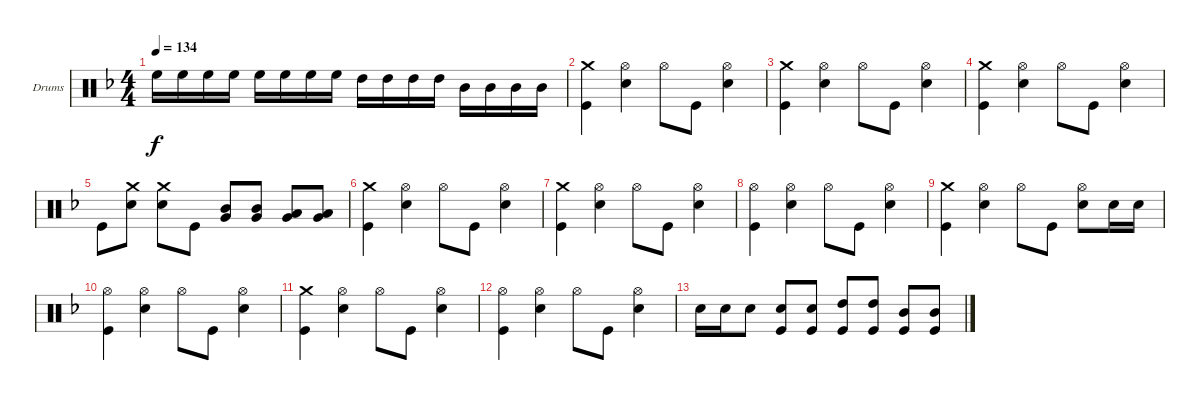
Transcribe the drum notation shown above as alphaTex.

\defaultSystemsLayout 4
\bracketExtendMode groupsimilarinstruments
\firstSystemTrackNameOrientation horizontal
\otherSystemsTrackNameOrientation horizontal
\track ("Carmine" "Drums") {instrument percussion}
\staff {score}
\articulation defaults
\ts (4 4)
\tempo 134
\clef neutral
\ks f "High Floor Tom (hit)".16{dy f} "High Floor Tom (hit)".16 "High Floor Tom (hit)".16 "High Floor Tom (hit)".16 "High Floor Tom (hit)".16 "High Floor Tom (hit)".16 "High Floor Tom (hit)".16 "High Floor Tom (hit)".16 "High Tom (hit)".16 "High Tom (hit)".16 "High Tom (hit)".16 "High Tom (hit)".16 "Mid Tom (hit)".16 "Mid Tom (hit)".16 "Mid Tom (hit)".16 "Mid Tom (hit)".16
|
("Crash medium (hit)" "Kick (hit)").4 ("Hi-Hat (open)" "Snare (hit) 2").4 "Hi-Hat (open)".8 "Kick (hit)".8 ("Hi-Hat (open)" "Snare (hit) 2").4 |
("Crash medium (hit)" "Kick (hit)").4 ("Hi-Hat (open)" "Snare (hit) 2").4 "Hi-Hat (open)".8 "Kick (hit)".8 ("Hi-Hat (open)" "Snare (hit) 2").4 |
("Crash medium (hit)" "Kick (hit)").4 ("Hi-Hat (open)" "Snare (hit) 2").4 "Hi-Hat (open)".8 "Kick (hit)".8 ("Hi-Hat (open)" "Snare (hit) 2").4 |
"Kick (hit)".8 ("Crash medium (hit)" "Snare (hit) 2").8 ("Crash medium (hit)" "Snare (hit) 2").8 "Kick (hit)".8 ("Mid Tom (hit)" "Very Low Tom (hit)").8 ("Mid Tom (hit)" "Very Low Tom (hit)").8 ("Low Tom (hit)" "Very Low Tom (hit)").8 ("Low Tom (hit)" "Very Low Tom (hit)").8 |
("Crash medium (hit)" "Kick (hit)").4 ("Hi-Hat (open)" "Snare (hit) 2").4 "Hi-Hat (open)".8 "Kick (hit)".8 ("Hi-Hat (open)" "Snare (hit) 2").4 |
("Crash medium (hit)" "Kick (hit)").4 ("Hi-Hat (open)" "Snare (hit) 2").4 "Hi-Hat (open)".8 "Kick (hit)".8 ("Hi-Hat (open)" "Snare (hit) 2").4 |
("Hi-Hat (open)" "Kick (hit)").4 ("Hi-Hat (open)" "Snare (hit) 2").4 "Hi-Hat (open)".8 "Kick (hit)".8 ("Hi-Hat (open)" "Snare (hit) 2").4 |
("Crash medium (hit)" "Kick (hit)").4 ("Hi-Hat (open)" "Snare (hit) 2").4 "Hi-Hat (open)".8 "Kick (hit)".8 ("Hi-Hat (open)" "Snare (hit) 2").8 "Snare (hit) 2".16 "Snare (hit) 2".16 |
("Hi-Hat (open)" "Kick (hit)").4 ("Hi-Hat (open)" "Snare (hit) 2").4 "Hi-Hat (open)".8 "Kick (hit)".8 ("Hi-Hat (open)" "Snare (hit) 2").4 |
("Crash medium (hit)" "Kick (hit)").4 ("Hi-Hat (open)" "Snare (hit) 2").4 "Hi-Hat (open)".8 "Kick (hit)".8 ("Hi-Hat (open)" "Snare (hit) 2").4 |
("Hi-Hat (open)" "Kick (hit)").4 ("Hi-Hat (open)" "Snare (hit) 2").4 "Hi-Hat (open)".8 "Kick (hit)".8 ("Hi-Hat (open)" "Snare (hit) 2").4 |
"Snare (hit) 2".16 "Snare (hit) 2".16 "Snare (hit) 2".8 ("Snare (hit) 2" "Kick (hit)").8 ("Snare (hit) 2" "Kick (hit)").8 ("High Tom (hit)" "Kick (hit)").8 ("High Tom (hit)" "Kick (hit)").8 ("Mid Tom (hit)" "Kick (hit)").8 ("Mid Tom (hit)" "Kick (hit)").8
